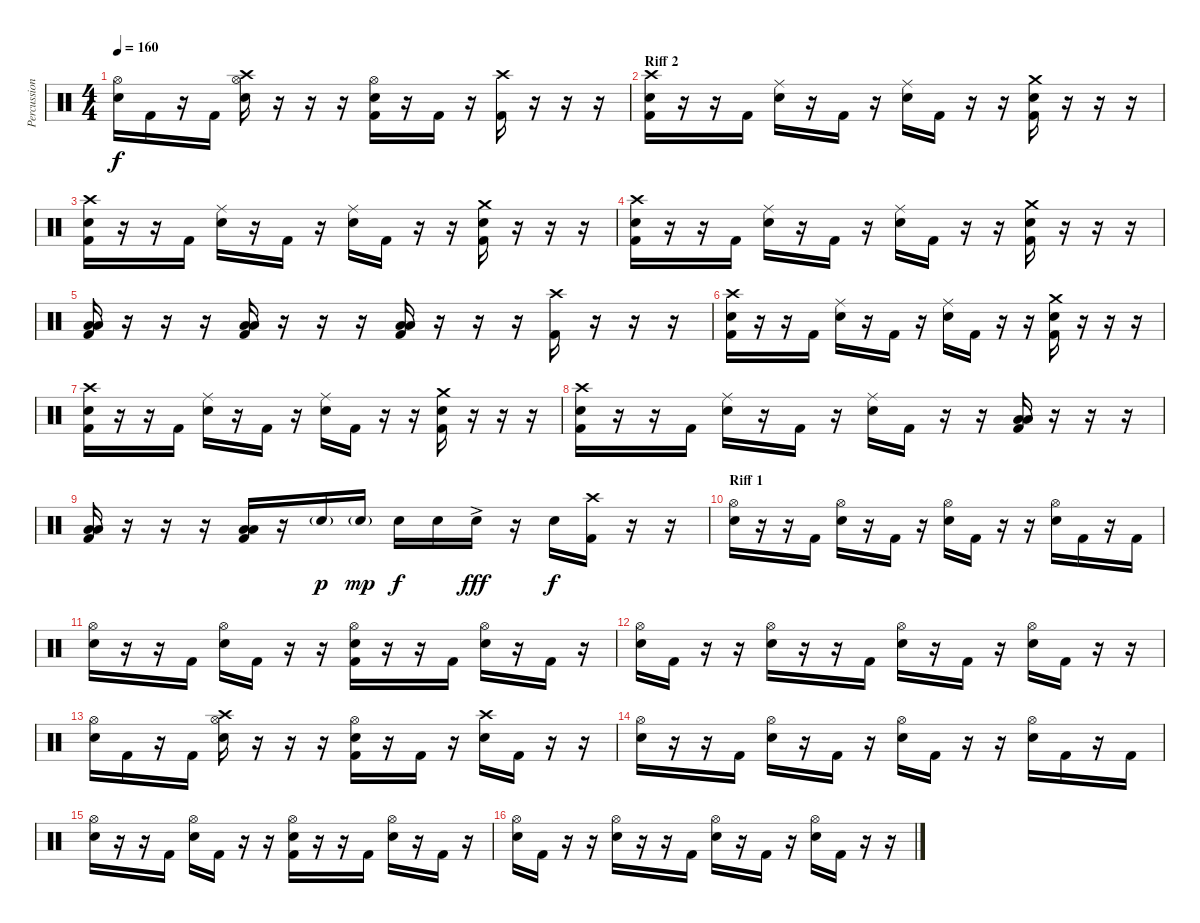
\track ("Percussion" "Percussion") {instrument percussion}
\staff {score}
\articulation defaults
\ts (4 4)
\tempo 160
\clef neutral
\ks c
("Hi-Hat (open)" "Electric Snare (hit)").16{dy f} "Kick (hit) 2".16 r.16 "Kick (hit) 2".16 ("Hi-Hat (open)" "Crash high (hit)" "Electric Snare (hit)").16 r.16 r.16 r.16 ("Hi-Hat (open)" "Electric Snare (hit)" "Kick (hit) 2").16 r.16 "Kick (hit) 2".16 r.16 ("Crash high (hit)" "Kick (hit) 2").16 r.16 r.16 r.16 |
\section ("" "Riff 2")
("Crash high (hit)" "Electric Snare (hit)" "Kick (hit) 2").16 r.16 r.16 "Kick (hit) 2".16 ("Ride (middle)" "Electric Snare (hit)").16 r.16 "Kick (hit) 2".16 r.16 ("Ride (middle)" "Electric Snare (hit)").16 "Kick (hit) 2".16 r.16 r.16 ("Crash medium (hit)" "Electric Snare (hit)" "Kick (hit) 2").16 r.16 r.16 r.16 |
("Crash high (hit)" "Electric Snare (hit)" "Kick (hit) 2").16 r.16 r.16 "Kick (hit) 2".16 ("Ride (middle)" "Electric Snare (hit)").16 r.16 "Kick (hit) 2".16 r.16 ("Ride (middle)" "Electric Snare (hit)").16 "Kick (hit) 2".16 r.16 r.16 ("Crash medium (hit)" "Electric Snare (hit)" "Kick (hit) 2").16 r.16 r.16 r.16 |
("Crash high (hit)" "Electric Snare (hit)" "Kick (hit) 2").16 r.16 r.16 "Kick (hit) 2".16 ("Ride (middle)" "Electric Snare (hit)").16 r.16 "Kick (hit) 2".16 r.16 ("Ride (middle)" "Electric Snare (hit)").16 "Kick (hit) 2".16 r.16 r.16 ("Crash medium (hit)" "Electric Snare (hit)" "Kick (hit) 2").16 r.16 r.16 r.16 |
("Low Tom (hit)" "Low Floor Tom (hit)" "Kick (hit) 2").16 r.16 r.16 r.16 ("Low Tom (hit)" "Low Floor Tom (hit)" "Kick (hit) 2").16 r.16 r.16 r.16 ("Low Tom (hit)" "Low Floor Tom (hit)" "Kick (hit) 2").16 r.16 r.16 r.16 ("Crash high (hit)" "Kick (hit) 2").16 r.16 r.16 r.16 |
("Crash high (hit)" "Electric Snare (hit)" "Kick (hit) 2").16 r.16 r.16 "Kick (hit) 2".16 ("Ride (middle)" "Electric Snare (hit)").16 r.16 "Kick (hit) 2".16 r.16 ("Ride (middle)" "Electric Snare (hit)").16 "Kick (hit) 2".16 r.16 r.16 ("Crash medium (hit)" "Electric Snare (hit)" "Kick (hit) 2").16 r.16 r.16 r.16 |
("Crash high (hit)" "Electric Snare (hit)" "Kick (hit) 2").16 r.16 r.16 "Kick (hit) 2".16 ("Ride (middle)" "Electric Snare (hit)").16 r.16 "Kick (hit) 2".16 r.16 ("Ride (middle)" "Electric Snare (hit)").16 "Kick (hit) 2".16 r.16 r.16 ("Crash medium (hit)" "Electric Snare (hit)" "Kick (hit) 2").16 r.16 r.16 r.16 |
("Crash high (hit)" "Electric Snare (hit)" "Kick (hit) 2").16 r.16 r.16 "Kick (hit) 2".16 ("Ride (middle)" "Electric Snare (hit)").16 r.16 "Kick (hit) 2".16 r.16 ("Ride (middle)" "Electric Snare (hit)").16 "Kick (hit) 2".16 r.16 r.16 ("Low Tom (hit)" "Low Floor Tom (hit)" "Kick (hit) 2").16 r.16 r.16 r.16 |
("Low Tom (hit)" "Low Floor Tom (hit)" "Kick (hit) 2").16 r.16 r.16 r.16 ("Low Tom (hit)" "Low Floor Tom (hit)" "Kick (hit) 2").16 r.16 "Electric Snare (hit)"{g}.16{dy p} "Electric Snare (hit)"{g}.16{dy mp} "Electric Snare (hit)".16{dy f} "Electric Snare (hit)".16 "Electric Snare (hit)"{ac}.16{dy fff} r.16 "Electric Snare (hit)".16{dy f} ("Crash high (hit)" "Kick (hit) 2").16 r.16 r.16 |
\section ("" "Riff 1")
("Hi-Hat (open)" "Electric Snare (hit)").16 r.16 r.16 "Kick (hit) 2".16 ("Hi-Hat (open)" "Electric Snare (hit)").16 r.16 "Kick (hit) 2".16 r.16 ("Hi-Hat (open)" "Electric Snare (hit)").16 "Kick (hit) 2".16 r.16 r.16 ("Hi-Hat (open)" "Electric Snare (hit)").16 "Kick (hit) 2".16 r.16 "Kick (hit) 2".16 |
("Hi-Hat (open)" "Electric Snare (hit)").16 r.16 r.16 "Kick (hit) 2".16 ("Hi-Hat (open)" "Electric Snare (hit)").16 "Kick (hit) 2".16 r.16 r.16 ("Hi-Hat (open)" "Electric Snare (hit)" "Kick (hit) 2").16 r.16 r.16 "Kick (hit) 2".16 ("Hi-Hat (open)" "Electric Snare (hit)").16 r.16 "Kick (hit) 2".16 r.16 |
("Hi-Hat (open)" "Electric Snare (hit)").16 "Kick (hit) 2".16 r.16 r.16 ("Hi-Hat (open)" "Electric Snare (hit)").16 r.16 r.16 "Kick (hit) 2".16 ("Hi-Hat (open)" "Electric Snare (hit)").16 r.16 "Kick (hit) 2".16 r.16 ("Hi-Hat (open)" "Electric Snare (hit)").16 "Kick (hit) 2".16 r.16 r.16 |
("Hi-Hat (open)" "Electric Snare (hit)").16 "Kick (hit) 2".16 r.16 "Kick (hit) 2".16 ("Hi-Hat (open)" "Crash high (hit)" "Electric Snare (hit)").16 r.16 r.16 r.16 ("Hi-Hat (open)" "Electric Snare (hit)" "Kick (hit) 2").16 r.16 "Kick (hit) 2".16 r.16 ("Crash high (hit)" "Electric Snare (hit)").16 "Kick (hit) 2".16 r.16 r.16 |
("Hi-Hat (open)" "Electric Snare (hit)").16 r.16 r.16 "Kick (hit) 2".16 ("Hi-Hat (open)" "Electric Snare (hit)").16 r.16 "Kick (hit) 2".16 r.16 ("Hi-Hat (open)" "Electric Snare (hit)").16 "Kick (hit) 2".16 r.16 r.16 ("Hi-Hat (open)" "Electric Snare (hit)").16 "Kick (hit) 2".16 r.16 "Kick (hit) 2".16 |
("Hi-Hat (open)" "Electric Snare (hit)").16 r.16 r.16 "Kick (hit) 2".16 ("Hi-Hat (open)" "Electric Snare (hit)").16 "Kick (hit) 2".16 r.16 r.16 ("Hi-Hat (open)" "Electric Snare (hit)" "Kick (hit) 2").16 r.16 r.16 "Kick (hit) 2".16 ("Hi-Hat (open)" "Electric Snare (hit)").16 r.16 "Kick (hit) 2".16 r.16 |
("Hi-Hat (open)" "Electric Snare (hit)").16 "Kick (hit) 2".16 r.16 r.16 ("Hi-Hat (open)" "Electric Snare (hit)").16 r.16 r.16 "Kick (hit) 2".16 ("Hi-Hat (open)" "Electric Snare (hit)").16 r.16 "Kick (hit) 2".16 r.16 ("Hi-Hat (open)" "Electric Snare (hit)").16 "Kick (hit) 2".16 r.16 r.16
